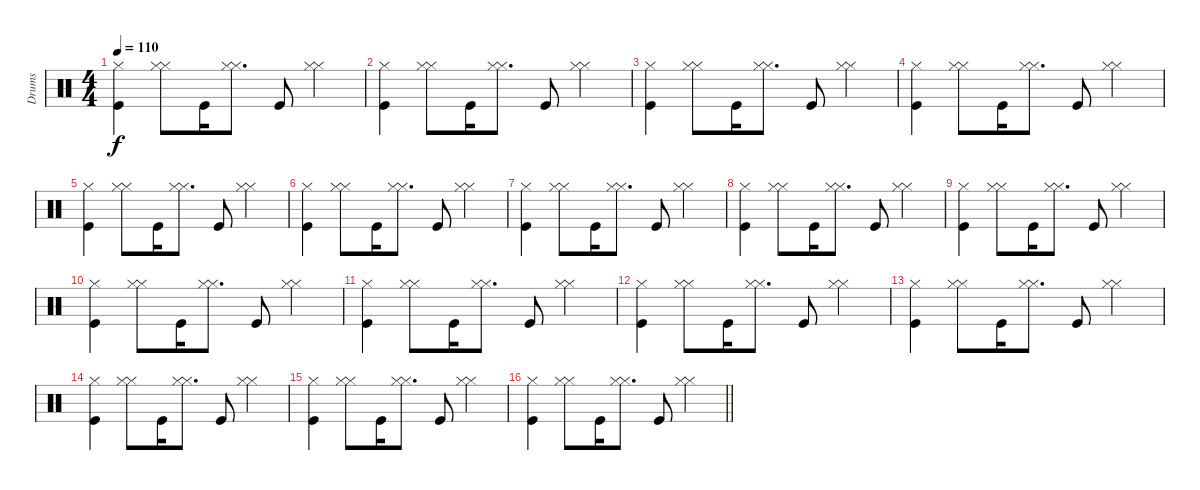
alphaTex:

\track ("Drums" "Drums") {instrument percussion}
\staff {score}
\articulation defaults
\ts (4 4)
\tempo 110
\clef neutral
\ks c
("Hi-Hat (closed)" "Kick (hit)").4{dy f} ("Hi-Hat (closed)" "Hi-Hat (closed)").8 "Kick (hit)".16 ("Hi-Hat (closed)" "Hi-Hat (closed)").8{d} "Kick (hit)".8 ("Hi-Hat (closed)" "Hi-Hat (closed)").4 |
("Hi-Hat (closed)" "Kick (hit)").4 ("Hi-Hat (closed)" "Hi-Hat (closed)").8 "Kick (hit)".16 ("Hi-Hat (closed)" "Hi-Hat (closed)").8{d} "Kick (hit)".8 ("Hi-Hat (closed)" "Hi-Hat (closed)").4 |
("Hi-Hat (closed)" "Kick (hit)").4 ("Hi-Hat (closed)" "Hi-Hat (closed)").8 "Kick (hit)".16 ("Hi-Hat (closed)" "Hi-Hat (closed)").8{d} "Kick (hit)".8 ("Hi-Hat (closed)" "Hi-Hat (closed)").4 |
("Hi-Hat (closed)" "Kick (hit)").4 ("Hi-Hat (closed)" "Hi-Hat (closed)").8 "Kick (hit)".16 ("Hi-Hat (closed)" "Hi-Hat (closed)").8{d} "Kick (hit)".8 ("Hi-Hat (closed)" "Hi-Hat (closed)").4 |
("Hi-Hat (closed)" "Kick (hit)").4 ("Hi-Hat (closed)" "Hi-Hat (closed)").8 "Kick (hit)".16 ("Hi-Hat (closed)" "Hi-Hat (closed)").8{d} "Kick (hit)".8 ("Hi-Hat (closed)" "Hi-Hat (closed)").4 |
("Hi-Hat (closed)" "Kick (hit)").4 ("Hi-Hat (closed)" "Hi-Hat (closed)").8 "Kick (hit)".16 ("Hi-Hat (closed)" "Hi-Hat (closed)").8{d} "Kick (hit)".8 ("Hi-Hat (closed)" "Hi-Hat (closed)").4 |
("Hi-Hat (closed)" "Kick (hit)").4 ("Hi-Hat (closed)" "Hi-Hat (closed)").8 "Kick (hit)".16 ("Hi-Hat (closed)" "Hi-Hat (closed)").8{d} "Kick (hit)".8 ("Hi-Hat (closed)" "Hi-Hat (closed)").4 |
("Hi-Hat (closed)" "Kick (hit)").4 ("Hi-Hat (closed)" "Hi-Hat (closed)").8 "Kick (hit)".16 ("Hi-Hat (closed)" "Hi-Hat (closed)").8{d} "Kick (hit)".8 ("Hi-Hat (closed)" "Hi-Hat (closed)").4 |
("Hi-Hat (closed)" "Kick (hit)").4 ("Hi-Hat (closed)" "Hi-Hat (closed)").8 "Kick (hit)".16 ("Hi-Hat (closed)" "Hi-Hat (closed)").8{d} "Kick (hit)".8 ("Hi-Hat (closed)" "Hi-Hat (closed)").4 |
("Hi-Hat (closed)" "Kick (hit)").4 ("Hi-Hat (closed)" "Hi-Hat (closed)").8 "Kick (hit)".16 ("Hi-Hat (closed)" "Hi-Hat (closed)").8{d} "Kick (hit)".8 ("Hi-Hat (closed)" "Hi-Hat (closed)").4 |
("Hi-Hat (closed)" "Kick (hit)").4 ("Hi-Hat (closed)" "Hi-Hat (closed)").8 "Kick (hit)".16 ("Hi-Hat (closed)" "Hi-Hat (closed)").8{d} "Kick (hit)".8 ("Hi-Hat (closed)" "Hi-Hat (closed)").4 |
("Hi-Hat (closed)" "Kick (hit)").4 ("Hi-Hat (closed)" "Hi-Hat (closed)").8 "Kick (hit)".16 ("Hi-Hat (closed)" "Hi-Hat (closed)").8{d} "Kick (hit)".8 ("Hi-Hat (closed)" "Hi-Hat (closed)").4 |
("Hi-Hat (closed)" "Kick (hit)").4 ("Hi-Hat (closed)" "Hi-Hat (closed)").8 "Kick (hit)".16 ("Hi-Hat (closed)" "Hi-Hat (closed)").8{d} "Kick (hit)".8 ("Hi-Hat (closed)" "Hi-Hat (closed)").4 |
("Hi-Hat (closed)" "Kick (hit)").4 ("Hi-Hat (closed)" "Hi-Hat (closed)").8 "Kick (hit)".16 ("Hi-Hat (closed)" "Hi-Hat (closed)").8{d} "Kick (hit)".8 ("Hi-Hat (closed)" "Hi-Hat (closed)").4 |
("Hi-Hat (closed)" "Kick (hit)").4 ("Hi-Hat (closed)" "Hi-Hat (closed)").8 "Kick (hit)".16 ("Hi-Hat (closed)" "Hi-Hat (closed)").8{d} "Kick (hit)".8 ("Hi-Hat (closed)" "Hi-Hat (closed)").4 |
\barLineRight lightlight
("Hi-Hat (closed)" "Kick (hit)").4 ("Hi-Hat (closed)" "Hi-Hat (closed)").8 "Kick (hit)".16 ("Hi-Hat (closed)" "Hi-Hat (closed)").8{d} "Kick (hit)".8 ("Hi-Hat (closed)" "Hi-Hat (closed)").4
